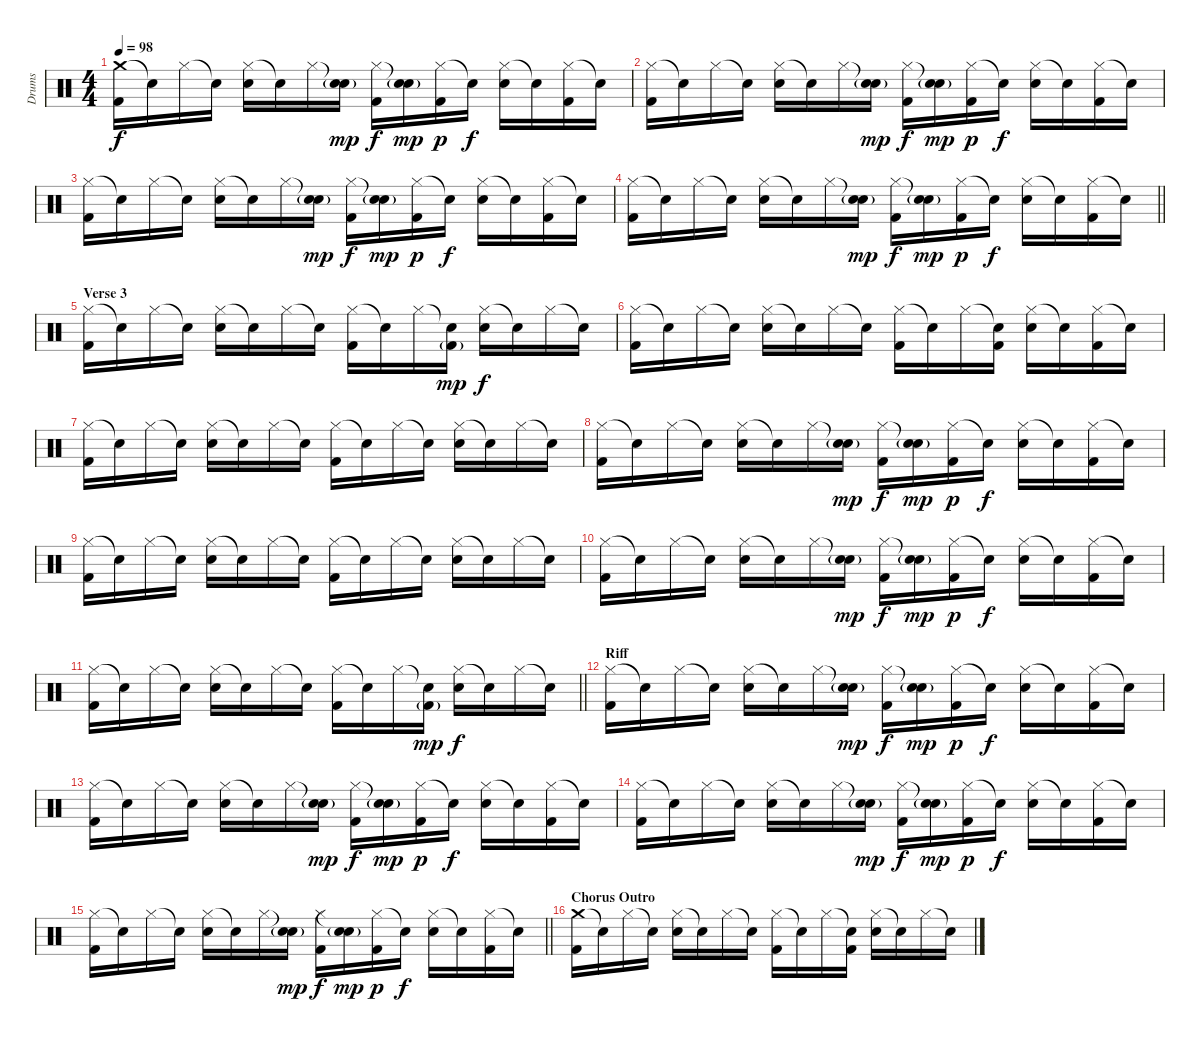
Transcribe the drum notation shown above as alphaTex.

\track ("Drums" "Drums") {instrument percussion}
\staff {score}
\articulation defaults
\ts (4 4)
\tempo 98
\clef neutral
\ks c
("Crash medium (hit)" "Kick (hit) 2").16{dy f} "Snare (hit)"{t}.16 "Hi-Hat (closed)".16 "Snare (hit)"{t}.16 ("Hi-Hat (closed)" "Snare (hit) 2").16 "Snare (hit)"{t}.16 "Hi-Hat (closed)".16 ("Snare (hit)"{t} "Snare (hit) 2"{g}).16{dy mp} ("Hi-Hat (closed)" "Kick (hit) 2").16{dy f} ("Snare (hit)"{t} "Snare (hit) 2"{g}).16{dy mp} ("Hi-Hat (closed)" "Kick (hit) 2").16{dy p} "Snare (hit)"{t}.16{dy f} ("Hi-Hat (closed)" "Snare (hit) 2").16 "Snare (hit)"{t}.16 ("Hi-Hat (closed)" "Kick (hit) 2").16 "Snare (hit)"{t}.16 |
("Hi-Hat (closed)" "Kick (hit) 2").16 "Snare (hit)"{t}.16 "Hi-Hat (closed)".16 "Snare (hit)"{t}.16 ("Hi-Hat (closed)" "Snare (hit) 2").16 "Snare (hit)"{t}.16 "Hi-Hat (closed)".16 ("Snare (hit)"{t} "Snare (hit) 2"{g}).16{dy mp} ("Hi-Hat (closed)" "Kick (hit) 2").16{dy f} ("Snare (hit)"{t} "Snare (hit) 2"{g}).16{dy mp} ("Hi-Hat (closed)" "Kick (hit) 2").16{dy p} "Snare (hit)"{t}.16{dy f} ("Hi-Hat (closed)" "Snare (hit) 2").16 "Snare (hit)"{t}.16 ("Hi-Hat (closed)" "Kick (hit) 2").16 "Snare (hit)"{t}.16 |
("Hi-Hat (closed)" "Kick (hit) 2").16 "Snare (hit)"{t}.16 "Hi-Hat (closed)".16 "Snare (hit)"{t}.16 ("Hi-Hat (closed)" "Snare (hit) 2").16 "Snare (hit)"{t}.16 "Hi-Hat (closed)".16 ("Snare (hit)"{t} "Snare (hit) 2"{g}).16{dy mp} ("Hi-Hat (closed)" "Kick (hit) 2").16{dy f} ("Snare (hit)"{t} "Snare (hit) 2"{g}).16{dy mp} ("Hi-Hat (closed)" "Kick (hit) 2").16{dy p} "Snare (hit)"{t}.16{dy f} ("Hi-Hat (closed)" "Snare (hit) 2").16 "Snare (hit)"{t}.16 ("Hi-Hat (closed)" "Kick (hit) 2").16 "Snare (hit)"{t}.16 |
\barLineRight lightlight
("Hi-Hat (closed)" "Kick (hit) 2").16 "Snare (hit)"{t}.16 "Hi-Hat (closed)".16 "Snare (hit)"{t}.16 ("Hi-Hat (closed)" "Snare (hit) 2").16 "Snare (hit)"{t}.16 "Hi-Hat (closed)".16 ("Snare (hit)"{t} "Snare (hit) 2"{g}).16{dy mp} ("Hi-Hat (closed)" "Kick (hit) 2").16{dy f} ("Snare (hit)"{t} "Snare (hit) 2"{g}).16{dy mp} ("Hi-Hat (closed)" "Kick (hit) 2").16{dy p} "Snare (hit)"{t}.16{dy f} ("Hi-Hat (closed)" "Snare (hit) 2").16 "Snare (hit)"{t}.16 ("Hi-Hat (closed)" "Kick (hit) 2").16 "Snare (hit)"{t}.16 |
\section ("" "Verse 3")
("Hi-Hat (closed)" "Kick (hit) 2").16 "Snare (hit)"{t}.16 "Hi-Hat (closed)".16 "Snare (hit)"{t}.16 ("Hi-Hat (closed)" "Snare (hit) 2").16 "Snare (hit)"{t}.16 "Hi-Hat (closed)".16 "Snare (hit)"{t}.16 ("Hi-Hat (closed)" "Kick (hit) 2").16 "Snare (hit)"{t}.16 "Hi-Hat (closed)".16 ("Snare (hit)"{t} "Kick (hit) 2"{g}).16{dy mp} ("Hi-Hat (closed)" "Snare (hit) 2").16{dy f} "Snare (hit)"{t}.16 "Hi-Hat (closed)".16 "Snare (hit)"{t}.16 |
("Hi-Hat (closed)" "Kick (hit) 2").16 "Snare (hit)"{t}.16 "Hi-Hat (closed)".16 "Snare (hit)"{t}.16 ("Hi-Hat (closed)" "Snare (hit) 2").16 "Snare (hit)"{t}.16 "Hi-Hat (closed)".16 "Snare (hit)"{t}.16 ("Hi-Hat (closed)" "Kick (hit) 2").16 "Snare (hit)"{t}.16 "Hi-Hat (closed)".16 ("Snare (hit)"{t} "Kick (hit) 2").16 ("Hi-Hat (closed)" "Snare (hit) 2").16 "Snare (hit)"{t}.16 ("Hi-Hat (closed)" "Kick (hit) 2").16 "Snare (hit)"{t}.16 |
("Hi-Hat (closed)" "Kick (hit) 2").16 "Snare (hit)"{t}.16 "Hi-Hat (closed)".16 "Snare (hit)"{t}.16 ("Hi-Hat (closed)" "Snare (hit) 2").16 "Snare (hit)"{t}.16 "Hi-Hat (closed)".16 "Snare (hit)"{t}.16 ("Hi-Hat (closed)" "Kick (hit) 2").16 "Snare (hit)"{t}.16 "Hi-Hat (closed)".16 "Snare (hit)"{t}.16 ("Hi-Hat (closed)" "Snare (hit) 2").16 "Snare (hit)"{t}.16 "Hi-Hat (closed)".16 "Snare (hit)"{t}.16 |
("Hi-Hat (closed)" "Kick (hit) 2").16 "Snare (hit)"{t}.16 "Hi-Hat (closed)".16 "Snare (hit)"{t}.16 ("Hi-Hat (closed)" "Snare (hit) 2").16 "Snare (hit)"{t}.16 "Hi-Hat (closed)".16 ("Snare (hit)"{t} "Snare (hit) 2"{g}).16{dy mp} ("Hi-Hat (closed)" "Kick (hit) 2").16{dy f} ("Snare (hit)"{t} "Snare (hit) 2"{g}).16{dy mp} ("Hi-Hat (closed)" "Kick (hit) 2").16{dy p} "Snare (hit)"{t}.16{dy f} ("Hi-Hat (closed)" "Snare (hit) 2").16 "Snare (hit)"{t}.16 ("Hi-Hat (closed)" "Kick (hit) 2").16 "Snare (hit)"{t}.16 |
("Hi-Hat (closed)" "Kick (hit) 2").16 "Snare (hit)"{t}.16 "Hi-Hat (closed)".16 "Snare (hit)"{t}.16 ("Hi-Hat (closed)" "Snare (hit) 2").16 "Snare (hit)"{t}.16 "Hi-Hat (closed)".16 "Snare (hit)"{t}.16 ("Hi-Hat (closed)" "Kick (hit) 2").16 "Snare (hit)"{t}.16 "Hi-Hat (closed)".16 "Snare (hit)"{t}.16 ("Hi-Hat (closed)" "Snare (hit) 2").16 "Snare (hit)"{t}.16 "Hi-Hat (closed)".16 "Snare (hit)"{t}.16 |
("Hi-Hat (closed)" "Kick (hit) 2").16 "Snare (hit)"{t}.16 "Hi-Hat (closed)".16 "Snare (hit)"{t}.16 ("Hi-Hat (closed)" "Snare (hit) 2").16 "Snare (hit)"{t}.16 "Hi-Hat (closed)".16 ("Snare (hit)"{t} "Snare (hit) 2"{g}).16{dy mp} ("Hi-Hat (closed)" "Kick (hit) 2").16{dy f} ("Snare (hit)"{t} "Snare (hit) 2"{g}).16{dy mp} ("Hi-Hat (closed)" "Kick (hit) 2").16{dy p} "Snare (hit)"{t}.16{dy f} ("Hi-Hat (closed)" "Snare (hit) 2").16 "Snare (hit)"{t}.16 ("Hi-Hat (closed)" "Kick (hit) 2").16 "Snare (hit)"{t}.16 |
\barLineRight lightlight
("Hi-Hat (closed)" "Kick (hit) 2").16 "Snare (hit)"{t}.16 "Hi-Hat (closed)".16 "Snare (hit)"{t}.16 ("Hi-Hat (closed)" "Snare (hit) 2").16 "Snare (hit)"{t}.16 "Hi-Hat (closed)".16 "Snare (hit)"{t}.16 ("Hi-Hat (closed)" "Kick (hit) 2").16 "Snare (hit)"{t}.16 "Hi-Hat (closed)".16 ("Snare (hit)"{t} "Kick (hit) 2"{g}).16{dy mp} ("Hi-Hat (closed)" "Snare (hit) 2").16{dy f} "Snare (hit)"{t}.16 "Hi-Hat (closed)".16 "Snare (hit)"{t}.16 |
\section ("" "Riff")
("Hi-Hat (closed)" "Kick (hit) 2").16 "Snare (hit)"{t}.16 "Hi-Hat (closed)".16 "Snare (hit)"{t}.16 ("Hi-Hat (closed)" "Snare (hit) 2").16 "Snare (hit)"{t}.16 "Hi-Hat (closed)".16 ("Snare (hit)"{t} "Snare (hit) 2"{g}).16{dy mp} ("Hi-Hat (closed)" "Kick (hit) 2").16{dy f} ("Snare (hit)"{t} "Snare (hit) 2"{g}).16{dy mp} ("Hi-Hat (closed)" "Kick (hit) 2").16{dy p} "Snare (hit)"{t}.16{dy f} ("Hi-Hat (closed)" "Snare (hit) 2").16 "Snare (hit)"{t}.16 ("Hi-Hat (closed)" "Kick (hit) 2").16 "Snare (hit)"{t}.16 |
("Hi-Hat (closed)" "Kick (hit) 2").16 "Snare (hit)"{t}.16 "Hi-Hat (closed)".16 "Snare (hit)"{t}.16 ("Hi-Hat (closed)" "Snare (hit) 2").16 "Snare (hit)"{t}.16 "Hi-Hat (closed)".16 ("Snare (hit)"{t} "Snare (hit) 2"{g}).16{dy mp} ("Hi-Hat (closed)" "Kick (hit) 2").16{dy f} ("Snare (hit)"{t} "Snare (hit) 2"{g}).16{dy mp} ("Hi-Hat (closed)" "Kick (hit) 2").16{dy p} "Snare (hit)"{t}.16{dy f} ("Hi-Hat (closed)" "Snare (hit) 2").16 "Snare (hit)"{t}.16 ("Hi-Hat (closed)" "Kick (hit) 2").16 "Snare (hit)"{t}.16 |
("Hi-Hat (closed)" "Kick (hit) 2").16 "Snare (hit)"{t}.16 "Hi-Hat (closed)".16 "Snare (hit)"{t}.16 ("Hi-Hat (closed)" "Snare (hit) 2").16 "Snare (hit)"{t}.16 "Hi-Hat (closed)".16 ("Snare (hit)"{t} "Snare (hit) 2"{g}).16{dy mp} ("Hi-Hat (closed)" "Kick (hit) 2").16{dy f} ("Snare (hit)"{t} "Snare (hit) 2"{g}).16{dy mp} ("Hi-Hat (closed)" "Kick (hit) 2").16{dy p} "Snare (hit)"{t}.16{dy f} ("Hi-Hat (closed)" "Snare (hit) 2").16 "Snare (hit)"{t}.16 ("Hi-Hat (closed)" "Kick (hit) 2").16 "Snare (hit)"{t}.16 |
\barLineRight lightlight
("Hi-Hat (closed)" "Kick (hit) 2").16 "Snare (hit)"{t}.16 "Hi-Hat (closed)".16 "Snare (hit)"{t}.16 ("Hi-Hat (closed)" "Snare (hit) 2").16 "Snare (hit)"{t}.16 "Hi-Hat (closed)".16 ("Snare (hit)"{t} "Snare (hit) 2"{g}).16{dy mp} ("Hi-Hat (closed)" "Kick (hit) 2").16{dy f} ("Snare (hit)"{t} "Snare (hit) 2"{g}).16{dy mp} ("Hi-Hat (closed)" "Kick (hit) 2").16{dy p} "Snare (hit)"{t}.16{dy f} ("Hi-Hat (closed)" "Snare (hit) 2").16 "Snare (hit)"{t}.16 ("Hi-Hat (closed)" "Kick (hit) 2").16 "Snare (hit)"{t}.16 |
\section ("" "Chorus Outro")
("Crash medium (hit)" "Kick (hit) 2").16 "Snare (hit)"{t}.16 "Hi-Hat (closed)".16 "Snare (hit)"{t}.16 ("Hi-Hat (closed)" "Snare (hit) 2").16 "Snare (hit)"{t}.16 "Hi-Hat (closed)".16 "Snare (hit)"{t}.16 ("Hi-Hat (closed)" "Kick (hit) 2").16 "Snare (hit)"{t}.16 "Hi-Hat (closed)".16 ("Snare (hit)"{t} "Kick (hit) 2").16 ("Hi-Hat (closed)" "Snare (hit) 2").16 "Snare (hit)"{t}.16 "Hi-Hat (closed)".16 "Snare (hit)"{t}.16
